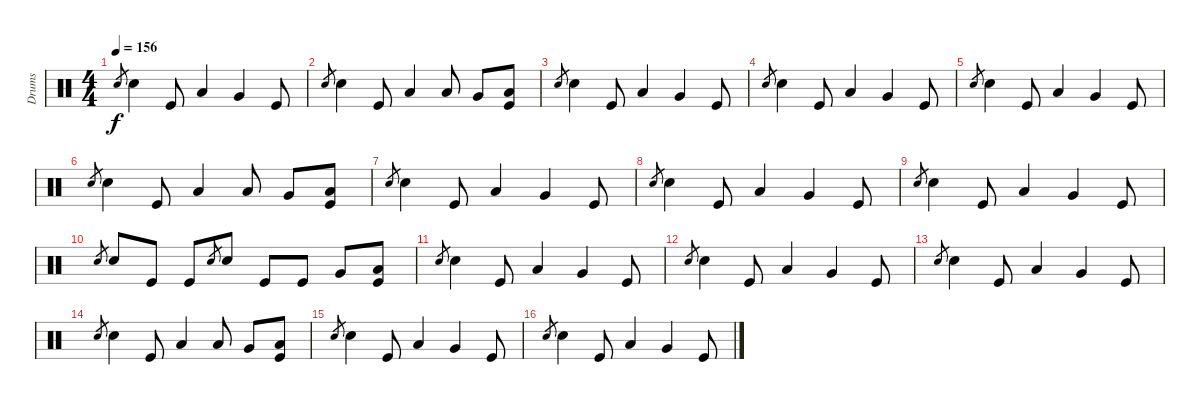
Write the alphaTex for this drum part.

\track ("Drums" "Drums") {instrument percussion}
\staff {score}
\articulation defaults
\ts (4 4)
\tempo 156
\clef neutral
\ks c "Electric Snare (hit)".8{gr dy f} "Electric Snare (hit)".4 "Kick (hit)".8 "Low Tom (hit)".4 "Very Low Tom (hit)".4 "Kick (hit)".8
|
"Electric Snare (hit)".8{gr} "Electric Snare (hit)".4 "Kick (hit)".8 "Low Tom (hit)".4 "Low Tom (hit)".8 "Very Low Tom (hit)".8 ("Low Floor Tom (hit)" "Kick (hit)").8 |
"Electric Snare (hit)".8{gr} "Electric Snare (hit)".4 "Kick (hit)".8 "Low Tom (hit)".4 "Very Low Tom (hit)".4 "Kick (hit)".8 |
"Electric Snare (hit)".8{gr} "Electric Snare (hit)".4 "Kick (hit)".8 "Low Tom (hit)".4 "Very Low Tom (hit)".4 "Kick (hit)".8 |
"Electric Snare (hit)".8{gr} "Electric Snare (hit)".4 "Kick (hit)".8 "Low Tom (hit)".4 "Very Low Tom (hit)".4 "Kick (hit)".8 |
"Electric Snare (hit)".8{gr} "Electric Snare (hit)".4 "Kick (hit)".8 "Low Tom (hit)".4 "Low Tom (hit)".8 "Very Low Tom (hit)".8 ("Low Floor Tom (hit)" "Kick (hit)").8 |
"Electric Snare (hit)".8{gr} "Electric Snare (hit)".4 "Kick (hit)".8 "Low Tom (hit)".4 "Very Low Tom (hit)".4 "Kick (hit)".8 |
"Electric Snare (hit)".8{gr} "Electric Snare (hit)".4 "Kick (hit)".8 "Low Tom (hit)".4 "Very Low Tom (hit)".4 "Kick (hit)".8 |
"Electric Snare (hit)".8{gr} "Electric Snare (hit)".4 "Kick (hit)".8 "Low Tom (hit)".4 "Very Low Tom (hit)".4 "Kick (hit)".8 |
"Electric Snare (hit)".8{gr} "Electric Snare (hit)".8 "Kick (hit)".8 "Kick (hit)".8 "Electric Snare (hit)".8{gr} "Electric Snare (hit)".8 "Kick (hit)".8 "Kick (hit)".8 "Very Low Tom (hit)".8 ("Low Floor Tom (hit)" "Kick (hit)").8 |
"Electric Snare (hit)".8{gr} "Electric Snare (hit)".4 "Kick (hit)".8 "Low Tom (hit)".4 "Very Low Tom (hit)".4 "Kick (hit)".8 |
"Electric Snare (hit)".8{gr} "Electric Snare (hit)".4 "Kick (hit)".8 "Low Tom (hit)".4 "Very Low Tom (hit)".4 "Kick (hit)".8 |
"Electric Snare (hit)".8{gr} "Electric Snare (hit)".4 "Kick (hit)".8 "Low Tom (hit)".4 "Very Low Tom (hit)".4 "Kick (hit)".8 |
"Electric Snare (hit)".8{gr} "Electric Snare (hit)".4 "Kick (hit)".8 "Low Tom (hit)".4 "Low Tom (hit)".8 "Very Low Tom (hit)".8 ("Low Floor Tom (hit)" "Kick (hit)").8 |
"Electric Snare (hit)".8{gr} "Electric Snare (hit)".4 "Kick (hit)".8 "Low Tom (hit)".4 "Very Low Tom (hit)".4 "Kick (hit)".8 |
"Electric Snare (hit)".8{gr} "Electric Snare (hit)".4 "Kick (hit)".8 "Low Tom (hit)".4 "Very Low Tom (hit)".4 "Kick (hit)".8
